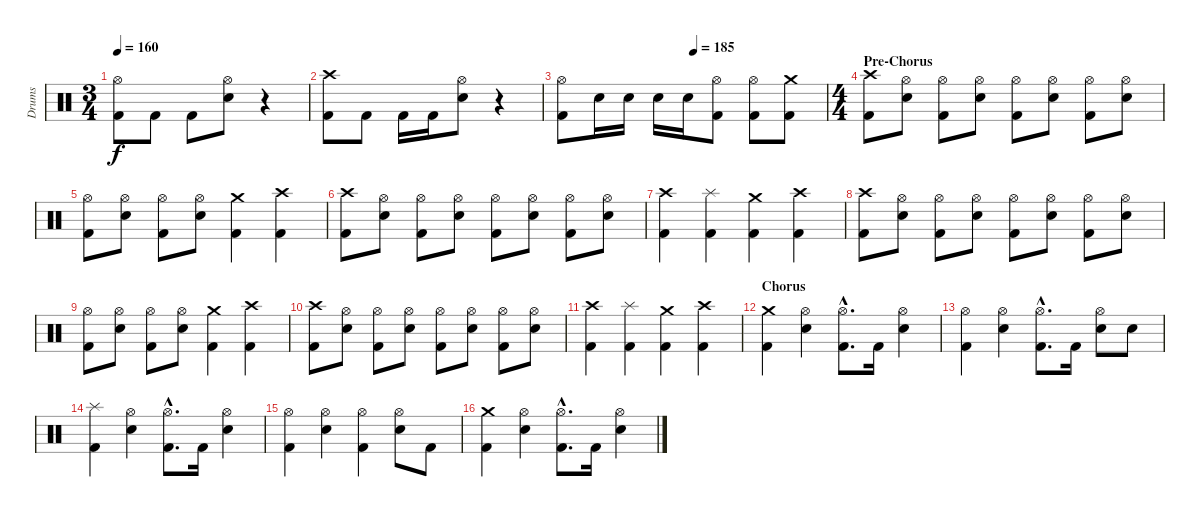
\track ("Drums" "Drums") {instrument percussion}
\staff {score}
\articulation defaults
\ts (3 4)
\tempo 160
\clef neutral
\ks c
("Hi-Hat (open)" "Kick (hit) 2").8{dy f} "Kick (hit) 2".8 "Kick (hit) 2".8 ("Hi-Hat (open)" "Snare (hit) 2").8 r.4 |
("Crash high (hit)" "Kick (hit) 2").8 "Kick (hit) 2".8 "Kick (hit) 2".16 "Kick (hit) 2".16 ("Hi-Hat (open)" "Snare (hit) 2").8 r.4 |
\tempo (185 0.5)
("Hi-Hat (open)" "Kick (hit) 2").8 "Snare (hit) 2".16 "Snare (hit) 2".16 "Snare (hit) 2".16 "Snare (hit) 2".16 ("Hi-Hat (open)" "Kick (hit) 2").8 ("Hi-Hat (open)" "Kick (hit) 2").8 ("Crash medium (hit)" "Kick (hit) 2").8 |
\ts (4 4)
\section ("" "Pre-Chorus")
("Crash high (hit)" "Kick (hit) 2").8 ("Hi-Hat (open)" "Snare (hit) 2").8 ("Hi-Hat (open)" "Kick (hit) 2").8 ("Hi-Hat (open)" "Snare (hit) 2").8 ("Hi-Hat (open)" "Kick (hit) 2").8 ("Hi-Hat (open)" "Snare (hit) 2").8 ("Hi-Hat (open)" "Kick (hit) 2").8 ("Hi-Hat (open)" "Snare (hit) 2").8 |
("Hi-Hat (open)" "Kick (hit) 2").8 ("Hi-Hat (open)" "Snare (hit) 2").8 ("Hi-Hat (open)" "Kick (hit) 2").8 ("Hi-Hat (open)" "Snare (hit) 2").8 ("Crash medium (hit)" "Kick (hit) 2").4 ("Crash high (hit)" "Kick (hit) 2").4 |
("Crash high (hit)" "Kick (hit) 2").8 ("Hi-Hat (open)" "Snare (hit) 2").8 ("Hi-Hat (open)" "Kick (hit) 2").8 ("Hi-Hat (open)" "Snare (hit) 2").8 ("Hi-Hat (open)" "Kick (hit) 2").8 ("Hi-Hat (open)" "Snare (hit) 2").8 ("Hi-Hat (open)" "Kick (hit) 2").8 ("Hi-Hat (open)" "Snare (hit) 2").8 |
("Crash high (hit)" "Kick (hit) 2").4 ("Splash (hit)" "Kick (hit) 2").4 ("Crash medium (hit)" "Kick (hit) 2").4 ("Crash high (hit)" "Kick (hit) 2").4 |
("Crash high (hit)" "Kick (hit) 2").8 ("Hi-Hat (open)" "Snare (hit) 2").8 ("Hi-Hat (open)" "Kick (hit) 2").8 ("Hi-Hat (open)" "Snare (hit) 2").8 ("Hi-Hat (open)" "Kick (hit) 2").8 ("Hi-Hat (open)" "Snare (hit) 2").8 ("Hi-Hat (open)" "Kick (hit) 2").8 ("Hi-Hat (open)" "Snare (hit) 2").8 |
("Hi-Hat (open)" "Kick (hit) 2").8 ("Hi-Hat (open)" "Snare (hit) 2").8 ("Hi-Hat (open)" "Kick (hit) 2").8 ("Hi-Hat (open)" "Snare (hit) 2").8 ("Crash medium (hit)" "Kick (hit) 2").4 ("Crash high (hit)" "Kick (hit) 2").4 |
("Crash high (hit)" "Kick (hit) 2").8 ("Hi-Hat (open)" "Snare (hit) 2").8 ("Hi-Hat (open)" "Kick (hit) 2").8 ("Hi-Hat (open)" "Snare (hit) 2").8 ("Hi-Hat (open)" "Kick (hit) 2").8 ("Hi-Hat (open)" "Snare (hit) 2").8 ("Hi-Hat (open)" "Kick (hit) 2").8 ("Hi-Hat (open)" "Snare (hit) 2").8 |
("Crash high (hit)" "Kick (hit) 2").4 ("Splash (hit)" "Kick (hit) 2").4 ("Crash medium (hit)" "Kick (hit) 2").4 ("Crash high (hit)" "Kick (hit) 2").4 |
\section ("" "Chorus")
("Crash medium (hit)" "Kick (hit) 2").4 ("Hi-Hat (open)" "Snare (hit) 2").4 ("Hi-Hat (open)"{hac} "Kick (hit) 2"{hac}).8{d} "Kick (hit) 2".16 ("Hi-Hat (open)" "Snare (hit) 2").4 |
("Hi-Hat (open)" "Kick (hit) 2").4 ("Hi-Hat (open)" "Snare (hit) 2").4 ("Hi-Hat (open)"{hac} "Kick (hit) 2"{hac}).8{d} "Kick (hit) 2".16 ("Hi-Hat (open)" "Snare (hit) 2").8 "Snare (hit) 2".8 |
("Splash (hit)" "Kick (hit) 2").4 ("Hi-Hat (open)" "Snare (hit) 2").4 ("Hi-Hat (open)"{hac} "Kick (hit) 2"{hac}).8{d} "Kick (hit) 2".16 ("Hi-Hat (open)" "Snare (hit) 2").4 |
("Hi-Hat (open)" "Kick (hit) 2").4 ("Hi-Hat (open)" "Snare (hit) 2").4 ("Hi-Hat (open)" "Kick (hit) 2").4 ("Hi-Hat (open)" "Snare (hit) 2").8 "Kick (hit) 2".8 |
("Crash medium (hit)" "Kick (hit) 2").4 ("Hi-Hat (open)" "Snare (hit) 2").4 ("Hi-Hat (open)"{hac} "Kick (hit) 2"{hac}).8{d} "Kick (hit) 2".16 ("Hi-Hat (open)" "Snare (hit) 2").4
